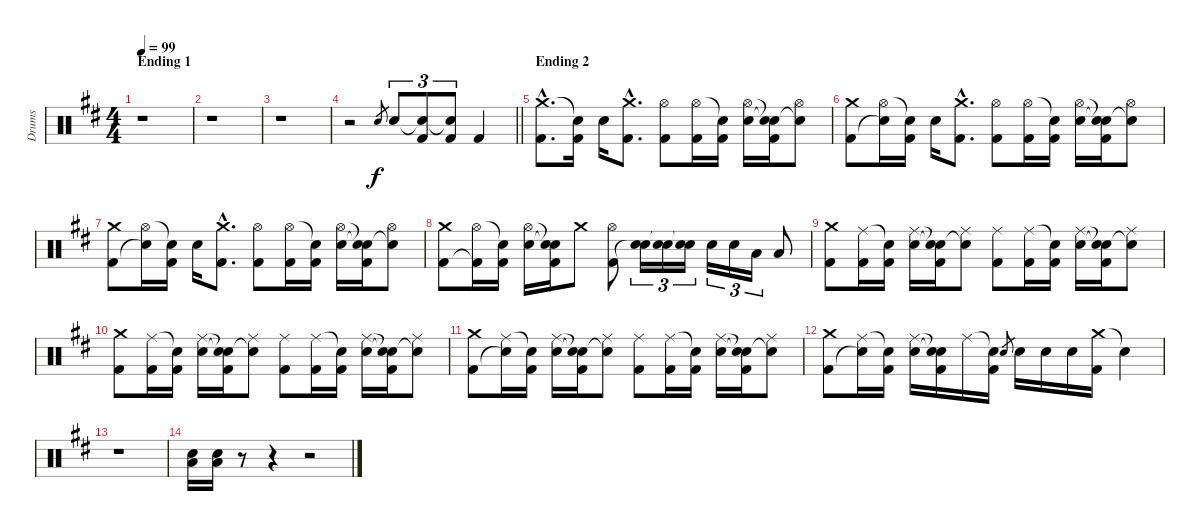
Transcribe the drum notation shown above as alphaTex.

\track ("Drums" "Drums") {instrument percussion}
\staff {score}
\articulation defaults
\ts (4 4)
\section ("" "Ending 1")
\tempo 99
\clef neutral
\ks d
r.1{dy f} |
r.1 |
r.1 |
\barLineRight lightlight
r.2 "Electric Snare (hit)".8{gr} "Electric Snare (hit)".8{tu (3 2)} ("Snare (hit)"{t} "Kick (hit) 2").8{tu (3 2)} ("Snare (hit)"{t} "Kick (hit) 2").8{tu (3 2)} "Kick (hit) 2".4 |
\section ("" "Ending 2")
("Crash medium (hit)"{hac} "Kick (hit) 2"{hac}).8{d} ("Snare (hit)"{t} "Kick (hit) 2").16 "Electric Snare (hit)".16 ("Crash medium (hit)"{hac} "Kick (hit) 2"{hac}).8{d} ("Hi-Hat (open)" "Kick (hit) 2").8 ("Hi-Hat (open)" "Kick (hit) 2").16 ("Snare (hit)"{t} "Kick (hit) 2").16 ("Hi-Hat (open)" "Electric Snare (hit)").16 ("Snare (hit)"{t} "Snare (hit)"{t} "Kick (hit) 2").16 ("Hi-Hat (open)" "Snare (hit)"{t}).8 |
("Crash medium (hit)" "Kick (hit) 2").8 ("Hi-Hat (open)" "Snare (hit)"{t}).16 ("Snare (hit)"{t} "Kick (hit) 2").16 "Electric Snare (hit)".16 ("Crash medium (hit)"{hac} "Kick (hit) 2"{hac}).8{d} ("Hi-Hat (open)" "Kick (hit) 2").8 ("Hi-Hat (open)" "Kick (hit) 2").16 ("Snare (hit)"{t} "Kick (hit) 2").16 ("Hi-Hat (open)" "Electric Snare (hit)").16 ("Snare (hit)"{t} "Snare (hit)"{t} "Kick (hit) 2").16 ("Hi-Hat (open)" "Snare (hit)"{t}).8 |
("Crash medium (hit)" "Kick (hit) 2").8 ("Hi-Hat (open)" "Snare (hit)"{t}).16 ("Snare (hit)"{t} "Kick (hit) 2").16 "Electric Snare (hit)".16 ("Crash medium (hit)"{hac} "Kick (hit) 2"{hac}).8{d} ("Hi-Hat (open)" "Kick (hit) 2").8 ("Hi-Hat (open)" "Kick (hit) 2").16 ("Snare (hit)"{t} "Kick (hit) 2").16 ("Hi-Hat (open)" "Electric Snare (hit)").16 ("Snare (hit)"{t} "Snare (hit)"{t} "Kick (hit) 2").16 ("Hi-Hat (open)" "Snare (hit)"{t}).8 |
("Crash medium (hit)" "Kick (hit) 2").8 ("Hi-Hat (open)" "Kick (hit) 2"{t}).16 ("Snare (hit)"{t} "Kick (hit) 2").16 ("Hi-Hat (open)" "Electric Snare (hit)").16 ("Snare (hit)"{t} "Snare (hit)"{t} "Kick (hit) 2").16 "Crash medium (hit)".8 ("Hi-Hat (open)" "Kick (hit) 2").8 ("Electric Snare (hit)" "Snare (hit)"{t}).16{tu (3 2)} ("Electric Snare (hit)" "Snare (hit)"{t}).16{tu (3 2)} ("Electric Snare (hit)" "Snare (hit)"{t}).16{tu (3 2)} "Electric Snare (hit)".16{tu (3 2)} "Electric Snare (hit)".16{tu (3 2)} "Low Tom (hit)".16{tu (3 2)} "Low Floor Tom (hit)".8 |
("Crash medium (hit)" "Kick (hit) 2").8 ("Ride (middle)" "Kick (hit) 2").16 ("Snare (hit)"{t} "Kick (hit) 2").16 ("Ride (middle)" "Electric Snare (hit)").16 ("Snare (hit)"{t} "Snare (hit)"{t} "Kick (hit) 2").16 ("Ride (middle)" "Snare (hit)"{t}).8 ("Ride (middle)" "Kick (hit) 2").8 ("Ride (middle)" "Kick (hit) 2").16 ("Snare (hit)"{t} "Kick (hit) 2").16 ("Ride (middle)" "Electric Snare (hit)").16 ("Snare (hit)"{t} "Snare (hit)"{t} "Kick (hit) 2").16 ("Ride (middle)" "Snare (hit)"{t}).8 |
("Crash medium (hit)" "Kick (hit) 2").8 ("Ride (middle)" "Kick (hit) 2").16 ("Snare (hit)"{t} "Kick (hit) 2").16 ("Ride (middle)" "Electric Snare (hit)").16 ("Snare (hit)"{t} "Snare (hit)"{t} "Kick (hit) 2").16 ("Ride (middle)" "Snare (hit)"{t}).8 ("Ride (middle)" "Kick (hit) 2").8 ("Ride (middle)" "Kick (hit) 2").16 ("Snare (hit)"{t} "Kick (hit) 2").16 ("Ride (middle)" "Electric Snare (hit)").16 ("Snare (hit)"{t} "Snare (hit)"{t} "Kick (hit) 2").16 ("Ride (middle)" "Snare (hit)"{t}).8 |
("Crash medium (hit)" "Kick (hit) 2").8 ("Ride (middle)" "Snare (hit)"{t}).16 ("Snare (hit)"{t} "Kick (hit) 2").16 ("Ride (middle)" "Electric Snare (hit)").16 ("Snare (hit)"{t} "Snare (hit)"{t} "Kick (hit) 2").16 ("Ride (middle)" "Snare (hit)"{t}).8 ("Ride (middle)" "Kick (hit) 2").8 ("Ride (middle)" "Kick (hit) 2").16 ("Snare (hit)"{t} "Kick (hit) 2").16 ("Ride (middle)" "Electric Snare (hit)").16 ("Snare (hit)"{t} "Snare (hit)"{t} "Kick (hit) 2").16 ("Ride (middle)" "Snare (hit)"{t}).8 |
("Crash medium (hit)" "Kick (hit) 2").8 ("Ride (middle)" "Snare (hit)"{t}).16 ("Snare (hit)"{t} "Kick (hit) 2").16 ("Ride (middle)" "Electric Snare (hit)").16 ("Snare (hit)"{t} "Snare (hit)"{t} "Kick (hit) 2").16 "Ride (middle)".16 ("Snare (hit)"{t} "Kick (hit) 2").16 "Electric Snare (hit)".8{gr} "Electric Snare (hit)".16 "Electric Snare (hit)".16 "Electric Snare (hit)".16 ("Crash medium (hit)" "Kick (hit) 2").16 "Snare (hit)"{t}.4 |
r.1 |
("Electric Snare (hit)" "Low Floor Tom (hit)").16 ("Electric Snare (hit)" "Low Floor Tom (hit)").16 r.8 r.4 r.2
